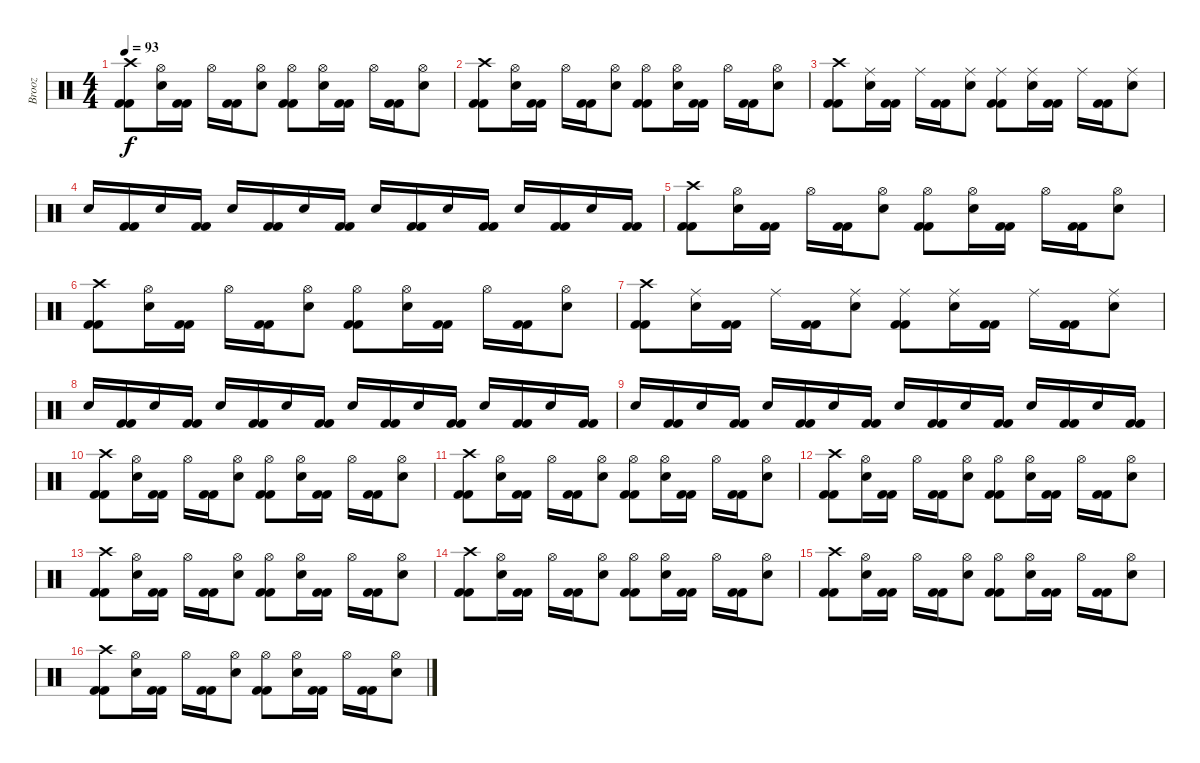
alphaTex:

\track ("Brooz" "Brooz") {instrument percussion}
\staff {score}
\articulation defaults
\ts (4 4)
\tempo 93
\clef neutral
\ks c
("Kick (hit) 2" "Crash high (hit)" "Kick (hit) 2").8{dy f} ("Hi-Hat (open)" "Electric Snare (hit)").16 ("Kick (hit) 2" "Kick (hit) 2").16 "Hi-Hat (open)".16 ("Kick (hit) 2" "Kick (hit) 2").16 ("Hi-Hat (open)" "Electric Snare (hit)").8 ("Kick (hit) 2" "Hi-Hat (open)" "Kick (hit) 2").8 ("Hi-Hat (open)" "Electric Snare (hit)").16 ("Kick (hit) 2" "Kick (hit) 2").16 "Hi-Hat (open)".16 ("Kick (hit) 2" "Kick (hit) 2").16 ("Hi-Hat (open)" "Electric Snare (hit)").8 |
("Kick (hit) 2" "Crash high (hit)" "Kick (hit) 2").8 ("Hi-Hat (open)" "Electric Snare (hit)").16 ("Kick (hit) 2" "Kick (hit) 2").16 "Hi-Hat (open)".16 ("Kick (hit) 2" "Kick (hit) 2").16 ("Hi-Hat (open)" "Electric Snare (hit)").8 ("Kick (hit) 2" "Hi-Hat (open)" "Kick (hit) 2").8 ("Hi-Hat (open)" "Electric Snare (hit)").16 ("Kick (hit) 2" "Kick (hit) 2").16 "Hi-Hat (open)".16 ("Kick (hit) 2" "Kick (hit) 2").16 ("Hi-Hat (open)" "Electric Snare (hit)").8 |
("Kick (hit) 2" "Crash high (hit)" "Kick (hit) 2").8 ("Ride (middle)" "Electric Snare (hit)").16 ("Kick (hit) 2" "Kick (hit) 2").16 "Ride (middle)".16 ("Kick (hit) 2" "Kick (hit) 2").16 ("Ride (middle)" "Electric Snare (hit)").8 ("Kick (hit) 2" "Ride (middle)" "Kick (hit) 2").8 ("Ride (middle)" "Electric Snare (hit)").16 ("Kick (hit) 2" "Kick (hit) 2").16 "Ride (middle)".16 ("Kick (hit) 2" "Kick (hit) 2").16 ("Ride (middle)" "Electric Snare (hit)").8 |
"Electric Snare (hit)".16 ("Kick (hit) 2" "Kick (hit) 2").16 "Electric Snare (hit)".16 ("Kick (hit) 2" "Kick (hit) 2").16 "Electric Snare (hit)".16 ("Kick (hit) 2" "Kick (hit) 2").16 "Electric Snare (hit)".16 ("Kick (hit) 2" "Kick (hit) 2").16 "Electric Snare (hit)".16 ("Kick (hit) 2" "Kick (hit) 2").16 "Electric Snare (hit)".16 ("Kick (hit) 2" "Kick (hit) 2").16 "Electric Snare (hit)".16 ("Kick (hit) 2" "Kick (hit) 2").16 "Electric Snare (hit)".16 ("Kick (hit) 2" "Kick (hit) 2").16 |
("Kick (hit) 2" "Crash high (hit)" "Kick (hit) 2").8 ("Hi-Hat (open)" "Electric Snare (hit)").16 ("Kick (hit) 2" "Kick (hit) 2").16 "Hi-Hat (open)".16 ("Kick (hit) 2" "Kick (hit) 2").16 ("Hi-Hat (open)" "Electric Snare (hit)").8 ("Kick (hit) 2" "Hi-Hat (open)" "Kick (hit) 2").8 ("Hi-Hat (open)" "Electric Snare (hit)").16 ("Kick (hit) 2" "Kick (hit) 2").16 "Hi-Hat (open)".16 ("Kick (hit) 2" "Kick (hit) 2").16 ("Hi-Hat (open)" "Electric Snare (hit)").8 |
("Kick (hit) 2" "Crash high (hit)" "Kick (hit) 2").8 ("Hi-Hat (open)" "Electric Snare (hit)").16 ("Kick (hit) 2" "Kick (hit) 2").16 "Hi-Hat (open)".16 ("Kick (hit) 2" "Kick (hit) 2").16 ("Hi-Hat (open)" "Electric Snare (hit)").8 ("Kick (hit) 2" "Hi-Hat (open)" "Kick (hit) 2").8 ("Hi-Hat (open)" "Electric Snare (hit)").16 ("Kick (hit) 2" "Kick (hit) 2").16 "Hi-Hat (open)".16 ("Kick (hit) 2" "Kick (hit) 2").16 ("Hi-Hat (open)" "Electric Snare (hit)").8 |
("Kick (hit) 2" "Crash high (hit)" "Kick (hit) 2").8 ("Ride (middle)" "Electric Snare (hit)").16 ("Kick (hit) 2" "Kick (hit) 2").16 "Ride (middle)".16 ("Kick (hit) 2" "Kick (hit) 2").16 ("Ride (middle)" "Electric Snare (hit)").8 ("Kick (hit) 2" "Ride (middle)" "Kick (hit) 2").8 ("Ride (middle)" "Electric Snare (hit)").16 ("Kick (hit) 2" "Kick (hit) 2").16 "Ride (middle)".16 ("Kick (hit) 2" "Kick (hit) 2").16 ("Ride (middle)" "Electric Snare (hit)").8 |
"Electric Snare (hit)".16 ("Kick (hit) 2" "Kick (hit) 2").16 "Electric Snare (hit)".16 ("Kick (hit) 2" "Kick (hit) 2").16 "Electric Snare (hit)".16 ("Kick (hit) 2" "Kick (hit) 2").16 "Electric Snare (hit)".16 ("Kick (hit) 2" "Kick (hit) 2").16 "Electric Snare (hit)".16 ("Kick (hit) 2" "Kick (hit) 2").16 "Electric Snare (hit)".16 ("Kick (hit) 2" "Kick (hit) 2").16 "Electric Snare (hit)".16 ("Kick (hit) 2" "Kick (hit) 2").16 "Electric Snare (hit)".16 ("Kick (hit) 2" "Kick (hit) 2").16 |
"Electric Snare (hit)".16 ("Kick (hit) 2" "Kick (hit) 2").16 "Electric Snare (hit)".16 ("Kick (hit) 2" "Kick (hit) 2").16 "Electric Snare (hit)".16 ("Kick (hit) 2" "Kick (hit) 2").16 "Electric Snare (hit)".16 ("Kick (hit) 2" "Kick (hit) 2").16 "Electric Snare (hit)".16 ("Kick (hit) 2" "Kick (hit) 2").16 "Electric Snare (hit)".16 ("Kick (hit) 2" "Kick (hit) 2").16 "Electric Snare (hit)".16 ("Kick (hit) 2" "Kick (hit) 2").16 "Electric Snare (hit)".16 ("Kick (hit) 2" "Kick (hit) 2").16 |
("Kick (hit) 2" "Crash high (hit)" "Kick (hit) 2").8 ("Hi-Hat (open)" "Electric Snare (hit)").16 ("Kick (hit) 2" "Kick (hit) 2").16 "Hi-Hat (open)".16 ("Kick (hit) 2" "Kick (hit) 2").16 ("Hi-Hat (open)" "Electric Snare (hit)").8 ("Kick (hit) 2" "Hi-Hat (open)" "Kick (hit) 2").8 ("Hi-Hat (open)" "Electric Snare (hit)").16 ("Kick (hit) 2" "Kick (hit) 2").16 "Hi-Hat (open)".16 ("Kick (hit) 2" "Kick (hit) 2").16 ("Hi-Hat (open)" "Electric Snare (hit)").8 |
("Kick (hit) 2" "Crash high (hit)" "Kick (hit) 2").8 ("Hi-Hat (open)" "Electric Snare (hit)").16 ("Kick (hit) 2" "Kick (hit) 2").16 "Hi-Hat (open)".16 ("Kick (hit) 2" "Kick (hit) 2").16 ("Hi-Hat (open)" "Electric Snare (hit)").8 ("Kick (hit) 2" "Hi-Hat (open)" "Kick (hit) 2").8 ("Hi-Hat (open)" "Electric Snare (hit)").16 ("Kick (hit) 2" "Kick (hit) 2").16 "Hi-Hat (open)".16 ("Kick (hit) 2" "Kick (hit) 2").16 ("Hi-Hat (open)" "Electric Snare (hit)").8 |
("Kick (hit) 2" "Crash high (hit)" "Kick (hit) 2").8 ("Hi-Hat (open)" "Electric Snare (hit)").16 ("Kick (hit) 2" "Kick (hit) 2").16 "Hi-Hat (open)".16 ("Kick (hit) 2" "Kick (hit) 2").16 ("Hi-Hat (open)" "Electric Snare (hit)").8 ("Kick (hit) 2" "Hi-Hat (open)" "Kick (hit) 2").8 ("Hi-Hat (open)" "Electric Snare (hit)").16 ("Kick (hit) 2" "Kick (hit) 2").16 "Hi-Hat (open)".16 ("Kick (hit) 2" "Kick (hit) 2").16 ("Hi-Hat (open)" "Electric Snare (hit)").8 |
("Kick (hit) 2" "Crash high (hit)" "Kick (hit) 2").8 ("Hi-Hat (open)" "Electric Snare (hit)").16 ("Kick (hit) 2" "Kick (hit) 2").16 "Hi-Hat (open)".16 ("Kick (hit) 2" "Kick (hit) 2").16 ("Hi-Hat (open)" "Electric Snare (hit)").8 ("Kick (hit) 2" "Hi-Hat (open)" "Kick (hit) 2").8 ("Hi-Hat (open)" "Electric Snare (hit)").16 ("Kick (hit) 2" "Kick (hit) 2").16 "Hi-Hat (open)".16 ("Kick (hit) 2" "Kick (hit) 2").16 ("Hi-Hat (open)" "Electric Snare (hit)").8 |
("Kick (hit) 2" "Crash high (hit)" "Kick (hit) 2").8 ("Hi-Hat (open)" "Electric Snare (hit)").16 ("Kick (hit) 2" "Kick (hit) 2").16 "Hi-Hat (open)".16 ("Kick (hit) 2" "Kick (hit) 2").16 ("Hi-Hat (open)" "Electric Snare (hit)").8 ("Kick (hit) 2" "Hi-Hat (open)" "Kick (hit) 2").8 ("Hi-Hat (open)" "Electric Snare (hit)").16 ("Kick (hit) 2" "Kick (hit) 2").16 "Hi-Hat (open)".16 ("Kick (hit) 2" "Kick (hit) 2").16 ("Hi-Hat (open)" "Electric Snare (hit)").8 |
("Kick (hit) 2" "Crash high (hit)" "Kick (hit) 2").8 ("Hi-Hat (open)" "Electric Snare (hit)").16 ("Kick (hit) 2" "Kick (hit) 2").16 "Hi-Hat (open)".16 ("Kick (hit) 2" "Kick (hit) 2").16 ("Hi-Hat (open)" "Electric Snare (hit)").8 ("Kick (hit) 2" "Hi-Hat (open)" "Kick (hit) 2").8 ("Hi-Hat (open)" "Electric Snare (hit)").16 ("Kick (hit) 2" "Kick (hit) 2").16 "Hi-Hat (open)".16 ("Kick (hit) 2" "Kick (hit) 2").16 ("Hi-Hat (open)" "Electric Snare (hit)").8 |
("Kick (hit) 2" "Crash high (hit)" "Kick (hit) 2").8 ("Hi-Hat (open)" "Electric Snare (hit)").16 ("Kick (hit) 2" "Kick (hit) 2").16 "Hi-Hat (open)".16 ("Kick (hit) 2" "Kick (hit) 2").16 ("Hi-Hat (open)" "Electric Snare (hit)").8 ("Kick (hit) 2" "Hi-Hat (open)" "Kick (hit) 2").8 ("Hi-Hat (open)" "Electric Snare (hit)").16 ("Kick (hit) 2" "Kick (hit) 2").16 "Hi-Hat (open)".16 ("Kick (hit) 2" "Kick (hit) 2").16 ("Hi-Hat (open)" "Electric Snare (hit)").8
